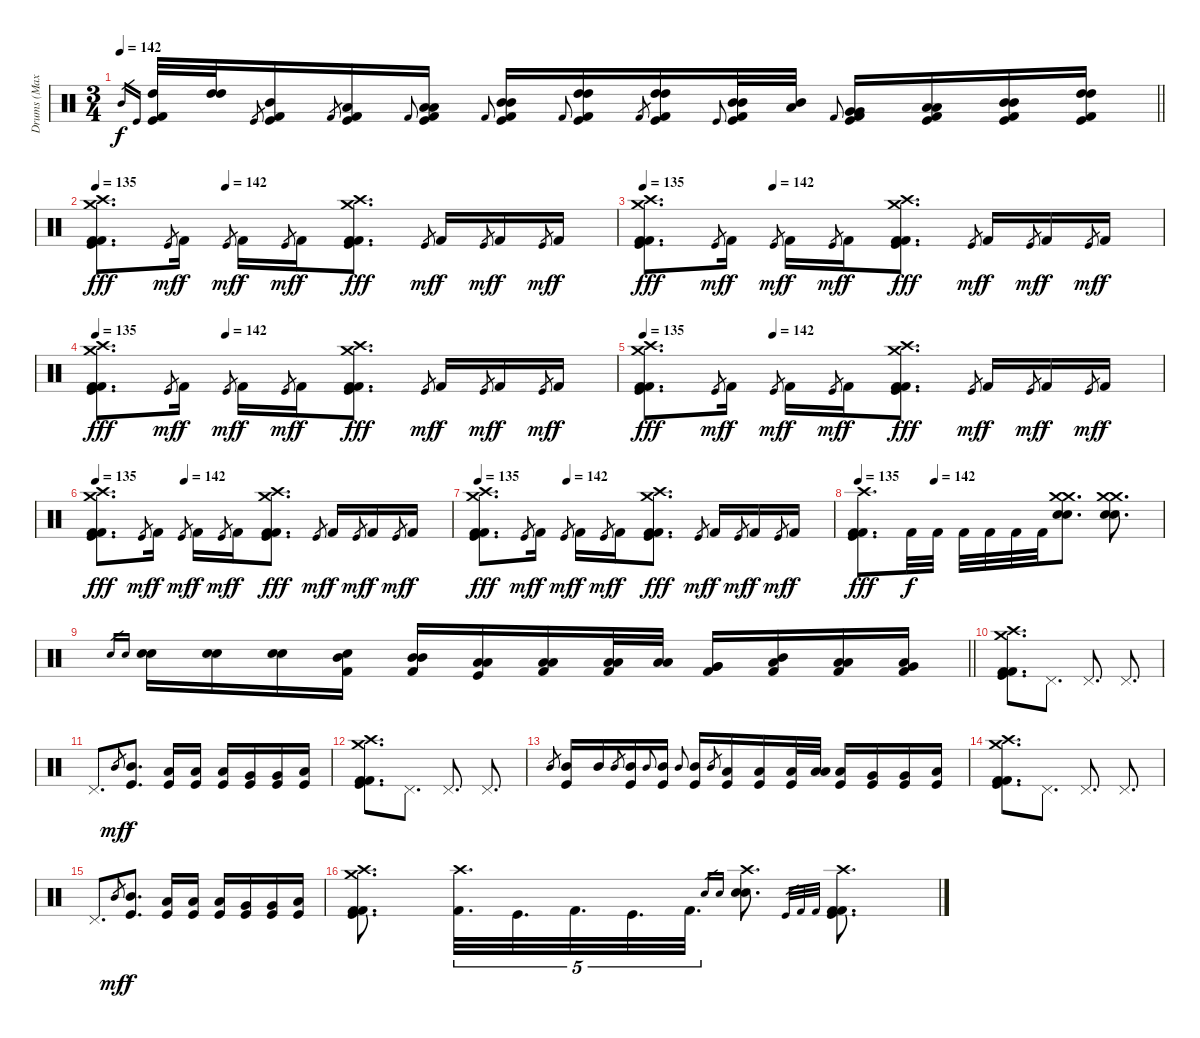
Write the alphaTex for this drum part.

\track ("Drums (Max overdub)" "Drums (Max") {instrument percussion}
\staff {score}
\articulation defaults
\ts (3 4)
\tempo 142
\clef neutral
\barLineRight lightlight
\ks c "Mid Tom (hit)".16{gr dy f} "Kick (hit)".16{gr}
("High Tom (hit)" "Kick (hit)" "Kick (hit) 2").32 ("High Tom (hit)" "High Tom (hit)").32 "Kick (hit)".8{gr} ("Mid Tom (hit)" "Kick (hit)" "Kick (hit) 2").16 "Kick (hit) 2".8{gr} ("Low Tom (hit)" "Kick (hit)" "Kick (hit) 2").16 "Kick (hit) 2".8{gr onbeat} ("Low Tom (hit)" "Low Tom (hit)" "Kick (hit)" "Kick (hit) 2").16 "Kick (hit) 2".8{gr onbeat} ("Mid Tom (hit)" "Mid Tom (hit)" "Kick (hit)" "Kick (hit) 2").16 "Kick (hit) 2".8{gr onbeat} ("High Tom (hit)" "High Tom (hit)" "Kick (hit)" "Kick (hit) 2").16 "Kick (hit) 2".8{gr} ("High Tom (hit)" "High Tom (hit)" "Kick (hit)" "Kick (hit) 2").16 "Kick (hit)".8{gr onbeat} ("Mid Tom (hit)" "Mid Tom (hit)" "Kick (hit)" "Kick (hit) 2").32 ("Mid Tom (hit)" "Low Tom (hit)").32 "Kick (hit) 2".8{gr onbeat} ("Very Low Tom (hit)" "Very Low Tom (hit)" "Kick (hit)" "Kick (hit) 2").16 ("Low Tom (hit)" "Low Tom (hit)" "Kick (hit)" "Kick (hit) 2").16 ("Mid Tom (hit)" "Mid Tom (hit)" "Kick (hit)" "Kick (hit) 2").16 ("High Tom (hit)" "High Tom (hit)" "Kick (hit)" "Kick (hit) 2").16 |
\section ("" "")
\tempo 135
\tempo (142 0.25)
("Crash high (hit)" "Crash medium (hit)" "Kick (hit)" "Kick (hit) 2" "Kick (hit) 2").8{d dy fff} "Kick (hit)".8{gr dy mf} "Kick (hit) 2".16{dy f} "Kick (hit)".8{gr dy mf} "Kick (hit) 2".16{dy f} "Kick (hit)".8{gr dy mf} "Kick (hit) 2".16{dy f} ("Crash high (hit)" "Crash medium (hit)" "Kick (hit)" "Kick (hit) 2" "Kick (hit) 2").8{d dy fff} "Kick (hit)".8{gr dy mf} "Kick (hit) 2".16{dy f} "Kick (hit)".8{gr dy mf} "Kick (hit) 2".16{dy f} "Kick (hit)".8{gr dy mf} "Kick (hit) 2".16{dy f} |
\tempo 135
\tempo (142 0.25)
("Crash high (hit)" "Crash medium (hit)" "Kick (hit)" "Kick (hit) 2" "Kick (hit) 2").8{d dy fff} "Kick (hit)".8{gr dy mf} "Kick (hit) 2".16{dy f} "Kick (hit)".8{gr dy mf} "Kick (hit) 2".16{dy f} "Kick (hit)".8{gr dy mf} "Kick (hit) 2".16{dy f} ("Crash high (hit)" "Crash medium (hit)" "Kick (hit)" "Kick (hit) 2" "Kick (hit) 2").8{d dy fff} "Kick (hit)".8{gr dy mf} "Kick (hit) 2".16{dy f} "Kick (hit)".8{gr dy mf} "Kick (hit) 2".16{dy f} "Kick (hit)".8{gr dy mf} "Kick (hit) 2".16{dy f} |
\tempo 135
\tempo (142 0.25)
("Crash high (hit)" "Crash medium (hit)" "Kick (hit)" "Kick (hit) 2" "Kick (hit) 2").8{d dy fff} "Kick (hit)".8{gr dy mf} "Kick (hit) 2".16{dy f} "Kick (hit)".8{gr dy mf} "Kick (hit) 2".16{dy f} "Kick (hit)".8{gr dy mf} "Kick (hit) 2".16{dy f} ("Crash high (hit)" "Crash medium (hit)" "Kick (hit)" "Kick (hit) 2" "Kick (hit) 2").8{d dy fff} "Kick (hit)".8{gr dy mf} "Kick (hit) 2".16{dy f} "Kick (hit)".8{gr dy mf} "Kick (hit) 2".16{dy f} "Kick (hit)".8{gr dy mf} "Kick (hit) 2".16{dy f} |
\tempo 135
\tempo (142 0.25)
("Crash high (hit)" "Crash medium (hit)" "Kick (hit)" "Kick (hit) 2" "Kick (hit) 2").8{d dy fff} "Kick (hit)".8{gr dy mf} "Kick (hit) 2".16{dy f} "Kick (hit)".8{gr dy mf} "Kick (hit) 2".16{dy f} "Kick (hit)".8{gr dy mf} "Kick (hit) 2".16{dy f} ("Crash high (hit)" "Crash medium (hit)" "Kick (hit)" "Kick (hit) 2" "Kick (hit) 2").8{d dy fff} "Kick (hit)".8{gr dy mf} "Kick (hit) 2".16{dy f} "Kick (hit)".8{gr dy mf} "Kick (hit) 2".16{dy f} "Kick (hit)".8{gr dy mf} "Kick (hit) 2".16{dy f} |
\tempo 135
\tempo (142 0.25)
("Crash high (hit)" "Crash medium (hit)" "Kick (hit)" "Kick (hit) 2" "Kick (hit) 2").8{d dy fff} "Kick (hit)".8{gr dy mf} "Kick (hit) 2".16{dy f} "Kick (hit)".8{gr dy mf} "Kick (hit) 2".16{dy f} "Kick (hit)".8{gr dy mf} "Kick (hit) 2".16{dy f} ("Crash high (hit)" "Crash medium (hit)" "Kick (hit)" "Kick (hit) 2" "Kick (hit) 2").8{d dy fff} "Kick (hit)".8{gr dy mf} "Kick (hit) 2".16{dy f} "Kick (hit)".8{gr dy mf} "Kick (hit) 2".16{dy f} "Kick (hit)".8{gr dy mf} "Kick (hit) 2".16{dy f} |
\tempo 135
\tempo (142 0.25)
("Crash high (hit)" "Crash medium (hit)" "Kick (hit)" "Kick (hit) 2" "Kick (hit) 2").8{d dy fff} "Kick (hit)".8{gr dy mf} "Kick (hit) 2".16{dy f} "Kick (hit)".8{gr dy mf} "Kick (hit) 2".16{dy f} "Kick (hit)".8{gr dy mf} "Kick (hit) 2".16{dy f} ("Crash high (hit)" "Crash medium (hit)" "Kick (hit)" "Kick (hit) 2" "Kick (hit) 2").8{d dy fff} "Kick (hit)".8{gr dy mf} "Kick (hit) 2".16{dy f} "Kick (hit)".8{gr dy mf} "Kick (hit) 2".16{dy f} "Kick (hit)".8{gr dy mf} "Kick (hit) 2".16{dy f} |
\tempo 135
\tempo (142 0.25)
("Crash high (hit)" "Kick (hit)" "Kick (hit) 2" "Kick (hit) 2").8{d dy fff} "Kick (hit) 2".32{dy f} "Kick (hit) 2".32 "Kick (hit) 2".32 "Kick (hit) 2".32 "Kick (hit) 2".32 "Kick (hit) 2".32 ("Crash medium (hit)" "Crash medium (hit)" "Electric Snare (hit)" "Snare (hit) 2").8{d} ("Crash medium (hit)" "Crash medium (hit)" "Electric Snare (hit)" "Snare (hit) 2").8{d} |
\barLineRight lightlight "Snare (hit) 2".16{gr} "Snare (hit) 2".16{gr}
("Electric Snare (hit)" "Snare (hit) 2").16 ("Electric Snare (hit)" "Snare (hit) 2").16 ("Electric Snare (hit)" "Snare (hit) 2").16 ("Mid Tom (hit)" "Snare (hit) 2" "Kick (hit) 2").16 ("Mid Tom (hit)" "Mid Tom (hit)" "Kick (hit) 2").16 ("Low Tom (hit)" "Low Tom (hit)" "Kick (hit)").16 ("Low Tom (hit)" "Low Tom (hit)" "Kick (hit) 2").16 ("Low Tom (hit)" "Low Tom (hit)" "Kick (hit) 2").32 ("Low Tom (hit)" "Low Tom (hit)").32 ("Very Low Tom (hit)" "Very Low Tom (hit)" "Kick (hit) 2").16 ("Mid Tom (hit)" "Low Tom (hit)" "Kick (hit) 2").16 ("Low Tom (hit)" "Low Tom (hit)" "Kick (hit) 2").16 ("Low Tom (hit)" "Very Low Tom (hit)" "Kick (hit) 2").16 |
\section ("" "")
("Crash high (hit)" "Crash medium (hit)" "Kick (hit)" "Kick (hit) 2" "Kick (hit) 2").8{d} "Pedal Hi-Hat (hit)".8{d} "Pedal Hi-Hat (hit)".8{d} "Pedal Hi-Hat (hit)".8{d} |
"Pedal Hi-Hat (hit)".8{d} "Mid Tom (hit)".8{gr dy mf} ("Mid Tom (hit)" "Kick (hit)").8{d dy f} ("Low Tom (hit)" "Kick (hit)").16 ("Low Tom (hit)" "Kick (hit)").16 ("Low Floor Tom (hit)" "Kick (hit)").16 ("Very Low Tom (hit)" "Kick (hit)").16 ("Very Low Tom (hit)" "Kick (hit)").16 ("Low Floor Tom (hit)" "Kick (hit)").16 |
("Crash high (hit)" "Crash medium (hit)" "Kick (hit)" "Kick (hit) 2" "Kick (hit) 2").8{d} "Pedal Hi-Hat (hit)".8{d} "Pedal Hi-Hat (hit)".8{d} "Pedal Hi-Hat (hit)".8{d} |
"Mid Tom (hit)".8{gr} ("Mid Tom (hit)" "Kick (hit)").16 "Mid Tom (hit)".16 "Mid Tom (hit)".8{gr} ("Mid Tom (hit)" "Kick (hit)").16 "Mid Tom (hit)".8{gr onbeat} ("Mid Tom (hit)" "Kick (hit)").16 "Mid Tom (hit)".8{gr onbeat} ("Mid Tom (hit)" "Kick (hit)").16 "Mid Tom (hit)".8{gr} ("Low Tom (hit)" "Kick (hit)").16 ("Low Tom (hit)" "Kick (hit)").16 ("Low Tom (hit)" "Kick (hit)").32 ("Low Tom (hit)" "Low Tom (hit)").32 ("Low Tom (hit)" "Kick (hit)").16 ("Very Low Tom (hit)" "Kick (hit)").16 ("Very Low Tom (hit)" "Kick (hit)").16 ("Low Floor Tom (hit)" "Kick (hit)").16 |
("Crash high (hit)" "Crash medium (hit)" "Kick (hit)" "Kick (hit) 2" "Kick (hit) 2").8{d} "Pedal Hi-Hat (hit)".8{d} "Pedal Hi-Hat (hit)".8{d} "Pedal Hi-Hat (hit)".8{d} |
"Pedal Hi-Hat (hit)".8{d} "Mid Tom (hit)".8{gr dy mf} ("Mid Tom (hit)" "Kick (hit)").8{d dy f} ("Low Tom (hit)" "Kick (hit)").16 ("Low Tom (hit)" "Kick (hit)").16 ("Low Floor Tom (hit)" "Kick (hit)").16 ("Very Low Tom (hit)" "Kick (hit)").16 ("Very Low Tom (hit)" "Kick (hit)").16 ("Low Floor Tom (hit)" "Kick (hit)").16 |
("Crash high (hit)" "Crash medium (hit)" "Kick (hit)" "Kick (hit) 2" "Kick (hit) 2").8{d} ("Crash high (hit)" "Kick (hit) 2").32{d tu (5 4)} "Kick (hit)".32{d tu (5 4)} "Kick (hit) 2".32{d tu (5 4)} "Kick (hit)".32{d tu (5 4)} "Kick (hit) 2".32{d tu (5 4)} "Electric Snare (hit)".16{gr} "Snare (hit) 2".16{gr} ("Crash high (hit)" "Electric Snare (hit)" "Snare (hit) 2").8{d} "Kick (hit)".32{gr} "Kick (hit) 2".32{gr} "Kick (hit) 2".32{gr} ("Crash high (hit)" "Kick (hit)" "Kick (hit) 2" "Kick (hit) 2").8{d}
